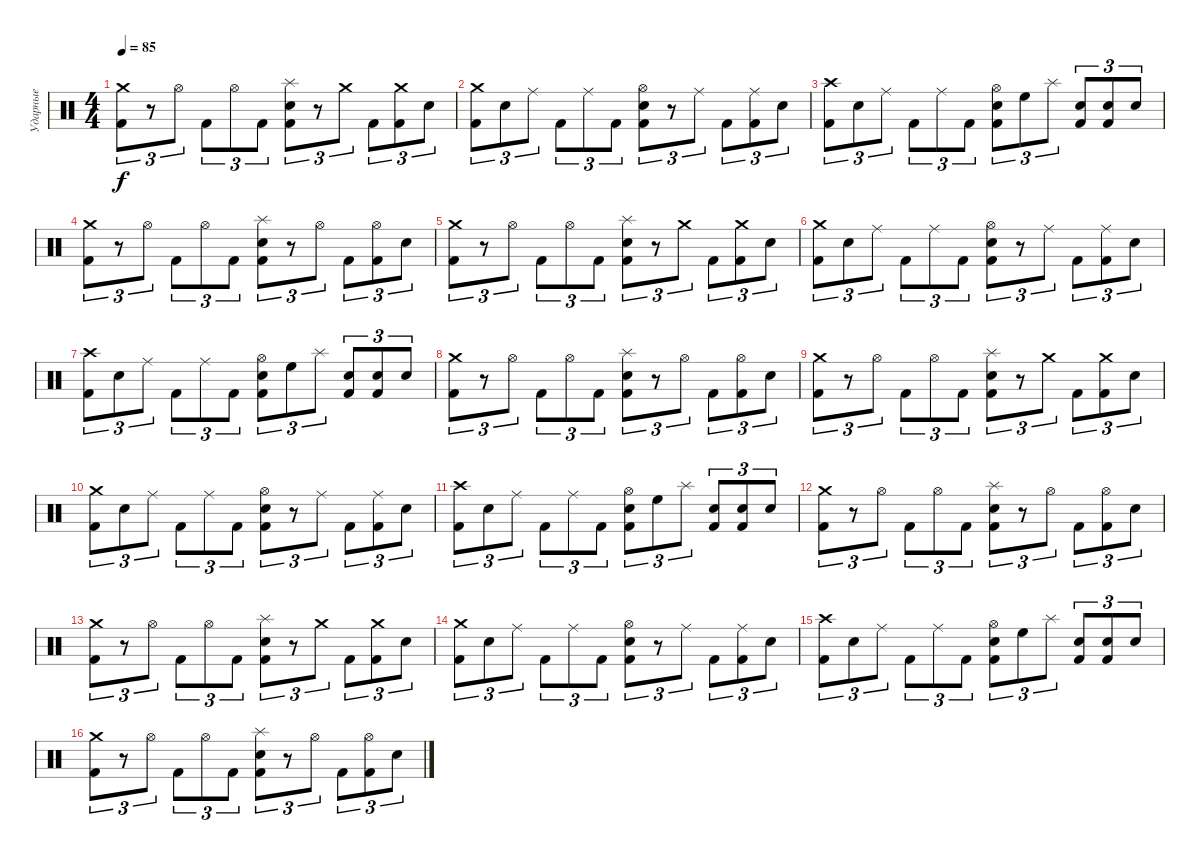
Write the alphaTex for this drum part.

\track ("Ударные" "Ударные") {instrument percussion}
\staff {score}
\articulation defaults
\ts (4 4)
\tempo 85
\clef neutral
\ks c
("Crash medium (hit)" "Kick (hit) 2").8{tu (3 2) dy f} r.8{tu (3 2)} "Hi-Hat (open)".8{tu (3 2)} "Kick (hit) 2".8{tu (3 2)} "Hi-Hat (open)".8{tu (3 2)} "Kick (hit) 2".8{tu (3 2)} ("Splash (hit)" "Electric Snare (hit)" "Kick (hit) 2").8{tu (3 2)} r.8{tu (3 2)} "Crash medium (hit)".8{tu (3 2)} "Kick (hit) 2".8{tu (3 2)} ("Crash medium (hit)" "Kick (hit) 2").8{tu (3 2)} "Electric Snare (hit)".8{tu (3 2)} |
("Crash medium (hit)" "Kick (hit) 2").8{tu (3 2)} "Electric Snare (hit)".8{tu (3 2)} "Ride (middle)".8{tu (3 2)} "Kick (hit) 2".8{tu (3 2)} "Ride (middle)".8{tu (3 2)} "Kick (hit) 2".8{tu (3 2)} ("Hi-Hat (open)" "Electric Snare (hit)" "Kick (hit) 2").8{tu (3 2)} r.8{tu (3 2)} "Ride (middle)".8{tu (3 2)} "Kick (hit) 2".8{tu (3 2)} ("Ride (middle)" "Kick (hit) 2").8{tu (3 2)} "Electric Snare (hit)".8{tu (3 2)} |
("Crash high (hit)" "Kick (hit) 2").8{tu (3 2)} "Electric Snare (hit)".8{tu (3 2)} "Ride (middle)".8{tu (3 2)} "Kick (hit) 2".8{tu (3 2)} "Ride (middle)".8{tu (3 2)} "Kick (hit) 2".8{tu (3 2)} ("Hi-Hat (open)" "Electric Snare (hit)" "Kick (hit) 2").8{tu (3 2)} "High Floor Tom (hit)".8{tu (3 2)} "Splash (hit)".8{tu (3 2)} ("Electric Snare (hit)" "Kick (hit) 2").8{tu (3 2)} ("Electric Snare (hit)" "Kick (hit) 2").8{tu (3 2)} "Electric Snare (hit)".8{tu (3 2)} |
("Crash medium (hit)" "Kick (hit) 2").8{tu (3 2)} r.8{tu (3 2)} "Hi-Hat (open)".8{tu (3 2)} "Kick (hit) 2".8{tu (3 2)} "Hi-Hat (open)".8{tu (3 2)} "Kick (hit) 2".8{tu (3 2)} ("Splash (hit)" "Electric Snare (hit)" "Kick (hit) 2").8{tu (3 2)} r.8{tu (3 2)} "Hi-Hat (open)".8{tu (3 2)} "Kick (hit) 2".8{tu (3 2)} ("Hi-Hat (open)" "Kick (hit) 2").8{tu (3 2)} "Electric Snare (hit)".8{tu (3 2)} |
("Crash medium (hit)" "Kick (hit) 2").8{tu (3 2)} r.8{tu (3 2)} "Hi-Hat (open)".8{tu (3 2)} "Kick (hit) 2".8{tu (3 2)} "Hi-Hat (open)".8{tu (3 2)} "Kick (hit) 2".8{tu (3 2)} ("Splash (hit)" "Electric Snare (hit)" "Kick (hit) 2").8{tu (3 2)} r.8{tu (3 2)} "Crash medium (hit)".8{tu (3 2)} "Kick (hit) 2".8{tu (3 2)} ("Crash medium (hit)" "Kick (hit) 2").8{tu (3 2)} "Electric Snare (hit)".8{tu (3 2)} |
("Crash medium (hit)" "Kick (hit) 2").8{tu (3 2)} "Electric Snare (hit)".8{tu (3 2)} "Ride (middle)".8{tu (3 2)} "Kick (hit) 2".8{tu (3 2)} "Ride (middle)".8{tu (3 2)} "Kick (hit) 2".8{tu (3 2)} ("Hi-Hat (open)" "Electric Snare (hit)" "Kick (hit) 2").8{tu (3 2)} r.8{tu (3 2)} "Ride (middle)".8{tu (3 2)} "Kick (hit) 2".8{tu (3 2)} ("Ride (middle)" "Kick (hit) 2").8{tu (3 2)} "Electric Snare (hit)".8{tu (3 2)} |
("Crash high (hit)" "Kick (hit) 2").8{tu (3 2)} "Electric Snare (hit)".8{tu (3 2)} "Ride (middle)".8{tu (3 2)} "Kick (hit) 2".8{tu (3 2)} "Ride (middle)".8{tu (3 2)} "Kick (hit) 2".8{tu (3 2)} ("Hi-Hat (open)" "Electric Snare (hit)" "Kick (hit) 2").8{tu (3 2)} "High Floor Tom (hit)".8{tu (3 2)} "Splash (hit)".8{tu (3 2)} ("Electric Snare (hit)" "Kick (hit) 2").8{tu (3 2)} ("Electric Snare (hit)" "Kick (hit) 2").8{tu (3 2)} "Electric Snare (hit)".8{tu (3 2)} |
("Crash medium (hit)" "Kick (hit) 2").8{tu (3 2)} r.8{tu (3 2)} "Hi-Hat (open)".8{tu (3 2)} "Kick (hit) 2".8{tu (3 2)} "Hi-Hat (open)".8{tu (3 2)} "Kick (hit) 2".8{tu (3 2)} ("Splash (hit)" "Electric Snare (hit)" "Kick (hit) 2").8{tu (3 2)} r.8{tu (3 2)} "Hi-Hat (open)".8{tu (3 2)} "Kick (hit) 2".8{tu (3 2)} ("Hi-Hat (open)" "Kick (hit) 2").8{tu (3 2)} "Electric Snare (hit)".8{tu (3 2)} |
("Crash medium (hit)" "Kick (hit) 2").8{tu (3 2)} r.8{tu (3 2)} "Hi-Hat (open)".8{tu (3 2)} "Kick (hit) 2".8{tu (3 2)} "Hi-Hat (open)".8{tu (3 2)} "Kick (hit) 2".8{tu (3 2)} ("Splash (hit)" "Electric Snare (hit)" "Kick (hit) 2").8{tu (3 2)} r.8{tu (3 2)} "Crash medium (hit)".8{tu (3 2)} "Kick (hit) 2".8{tu (3 2)} ("Crash medium (hit)" "Kick (hit) 2").8{tu (3 2)} "Electric Snare (hit)".8{tu (3 2)} |
("Crash medium (hit)" "Kick (hit) 2").8{tu (3 2)} "Electric Snare (hit)".8{tu (3 2)} "Ride (middle)".8{tu (3 2)} "Kick (hit) 2".8{tu (3 2)} "Ride (middle)".8{tu (3 2)} "Kick (hit) 2".8{tu (3 2)} ("Hi-Hat (open)" "Electric Snare (hit)" "Kick (hit) 2").8{tu (3 2)} r.8{tu (3 2)} "Ride (middle)".8{tu (3 2)} "Kick (hit) 2".8{tu (3 2)} ("Ride (middle)" "Kick (hit) 2").8{tu (3 2)} "Electric Snare (hit)".8{tu (3 2)} |
("Crash high (hit)" "Kick (hit) 2").8{tu (3 2)} "Electric Snare (hit)".8{tu (3 2)} "Ride (middle)".8{tu (3 2)} "Kick (hit) 2".8{tu (3 2)} "Ride (middle)".8{tu (3 2)} "Kick (hit) 2".8{tu (3 2)} ("Hi-Hat (open)" "Electric Snare (hit)" "Kick (hit) 2").8{tu (3 2)} "High Floor Tom (hit)".8{tu (3 2)} "Splash (hit)".8{tu (3 2)} ("Electric Snare (hit)" "Kick (hit) 2").8{tu (3 2)} ("Electric Snare (hit)" "Kick (hit) 2").8{tu (3 2)} "Electric Snare (hit)".8{tu (3 2)} |
("Crash medium (hit)" "Kick (hit) 2").8{tu (3 2)} r.8{tu (3 2)} "Hi-Hat (open)".8{tu (3 2)} "Kick (hit) 2".8{tu (3 2)} "Hi-Hat (open)".8{tu (3 2)} "Kick (hit) 2".8{tu (3 2)} ("Splash (hit)" "Electric Snare (hit)" "Kick (hit) 2").8{tu (3 2)} r.8{tu (3 2)} "Hi-Hat (open)".8{tu (3 2)} "Kick (hit) 2".8{tu (3 2)} ("Hi-Hat (open)" "Kick (hit) 2").8{tu (3 2)} "Electric Snare (hit)".8{tu (3 2)} |
("Crash medium (hit)" "Kick (hit) 2").8{tu (3 2)} r.8{tu (3 2)} "Hi-Hat (open)".8{tu (3 2)} "Kick (hit) 2".8{tu (3 2)} "Hi-Hat (open)".8{tu (3 2)} "Kick (hit) 2".8{tu (3 2)} ("Splash (hit)" "Electric Snare (hit)" "Kick (hit) 2").8{tu (3 2)} r.8{tu (3 2)} "Crash medium (hit)".8{tu (3 2)} "Kick (hit) 2".8{tu (3 2)} ("Crash medium (hit)" "Kick (hit) 2").8{tu (3 2)} "Electric Snare (hit)".8{tu (3 2)} |
("Crash medium (hit)" "Kick (hit) 2").8{tu (3 2)} "Electric Snare (hit)".8{tu (3 2)} "Ride (middle)".8{tu (3 2)} "Kick (hit) 2".8{tu (3 2)} "Ride (middle)".8{tu (3 2)} "Kick (hit) 2".8{tu (3 2)} ("Hi-Hat (open)" "Electric Snare (hit)" "Kick (hit) 2").8{tu (3 2)} r.8{tu (3 2)} "Ride (middle)".8{tu (3 2)} "Kick (hit) 2".8{tu (3 2)} ("Ride (middle)" "Kick (hit) 2").8{tu (3 2)} "Electric Snare (hit)".8{tu (3 2)} |
("Crash high (hit)" "Kick (hit) 2").8{tu (3 2)} "Electric Snare (hit)".8{tu (3 2)} "Ride (middle)".8{tu (3 2)} "Kick (hit) 2".8{tu (3 2)} "Ride (middle)".8{tu (3 2)} "Kick (hit) 2".8{tu (3 2)} ("Hi-Hat (open)" "Electric Snare (hit)" "Kick (hit) 2").8{tu (3 2)} "High Floor Tom (hit)".8{tu (3 2)} "Splash (hit)".8{tu (3 2)} ("Electric Snare (hit)" "Kick (hit) 2").8{tu (3 2)} ("Electric Snare (hit)" "Kick (hit) 2").8{tu (3 2)} "Electric Snare (hit)".8{tu (3 2)} |
("Crash medium (hit)" "Kick (hit) 2").8{tu (3 2)} r.8{tu (3 2)} "Hi-Hat (open)".8{tu (3 2)} "Kick (hit) 2".8{tu (3 2)} "Hi-Hat (open)".8{tu (3 2)} "Kick (hit) 2".8{tu (3 2)} ("Splash (hit)" "Electric Snare (hit)" "Kick (hit) 2").8{tu (3 2)} r.8{tu (3 2)} "Hi-Hat (open)".8{tu (3 2)} "Kick (hit) 2".8{tu (3 2)} ("Hi-Hat (open)" "Kick (hit) 2").8{tu (3 2)} "Electric Snare (hit)".8{tu (3 2)}
